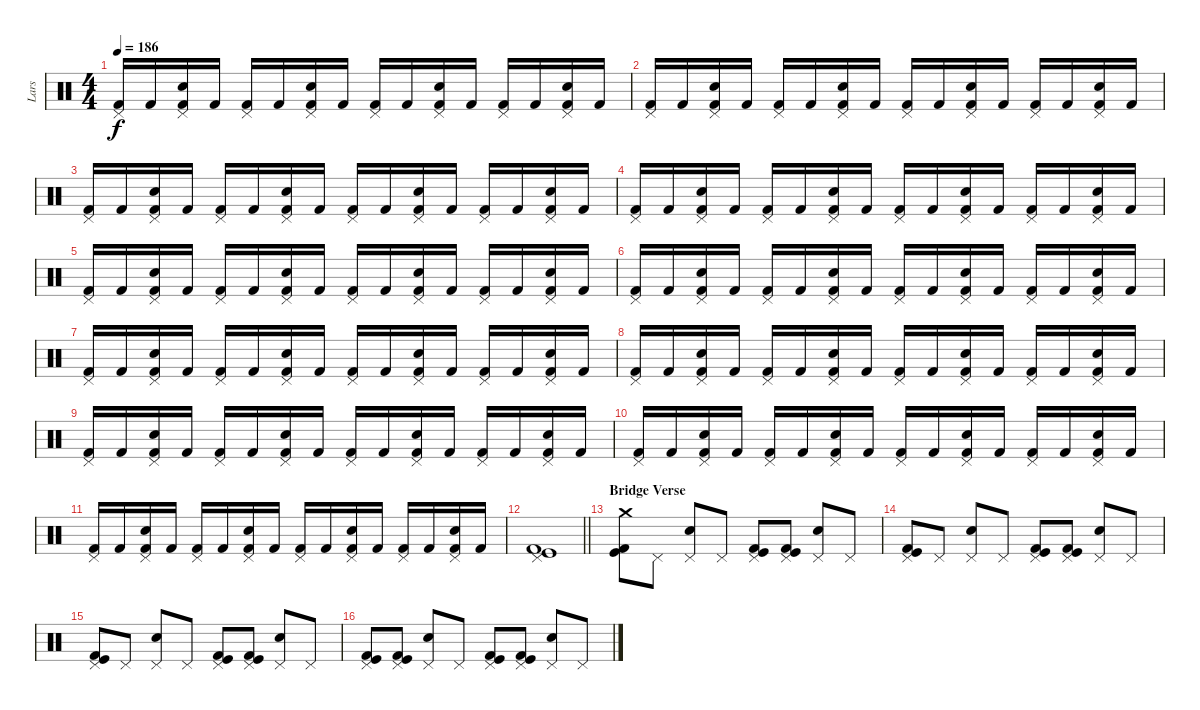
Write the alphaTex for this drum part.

\track ("Lars" "Lars") {instrument percussion}
\staff {score}
\articulation defaults
\ts (4 4)
\tempo 186
\clef neutral
\ks c
("Pedal Hi-Hat (hit)" "Kick (hit) 2").16{dy f} "Kick (hit) 2".16 ("Pedal Hi-Hat (hit)" "Electric Snare (hit)" "Kick (hit) 2").16 "Kick (hit) 2".16 ("Pedal Hi-Hat (hit)" "Kick (hit) 2").16 "Kick (hit) 2".16 ("Pedal Hi-Hat (hit)" "Electric Snare (hit)" "Kick (hit) 2").16 "Kick (hit) 2".16 ("Pedal Hi-Hat (hit)" "Kick (hit) 2").16 "Kick (hit) 2".16 ("Pedal Hi-Hat (hit)" "Electric Snare (hit)" "Kick (hit) 2").16 "Kick (hit) 2".16 ("Pedal Hi-Hat (hit)" "Kick (hit) 2").16 "Kick (hit) 2".16 ("Pedal Hi-Hat (hit)" "Electric Snare (hit)" "Kick (hit) 2").16 "Kick (hit) 2".16 |
("Pedal Hi-Hat (hit)" "Kick (hit) 2").16 "Kick (hit) 2".16 ("Pedal Hi-Hat (hit)" "Electric Snare (hit)" "Kick (hit) 2").16 "Kick (hit) 2".16 ("Pedal Hi-Hat (hit)" "Kick (hit) 2").16 "Kick (hit) 2".16 ("Pedal Hi-Hat (hit)" "Electric Snare (hit)" "Kick (hit) 2").16 "Kick (hit) 2".16 ("Pedal Hi-Hat (hit)" "Kick (hit) 2").16 "Kick (hit) 2".16 ("Pedal Hi-Hat (hit)" "Electric Snare (hit)" "Kick (hit) 2").16 "Kick (hit) 2".16 ("Pedal Hi-Hat (hit)" "Kick (hit) 2").16 "Kick (hit) 2".16 ("Pedal Hi-Hat (hit)" "Electric Snare (hit)" "Kick (hit) 2").16 "Kick (hit) 2".16 |
("Pedal Hi-Hat (hit)" "Kick (hit) 2").16 "Kick (hit) 2".16 ("Pedal Hi-Hat (hit)" "Electric Snare (hit)" "Kick (hit) 2").16 "Kick (hit) 2".16 ("Pedal Hi-Hat (hit)" "Kick (hit) 2").16 "Kick (hit) 2".16 ("Pedal Hi-Hat (hit)" "Electric Snare (hit)" "Kick (hit) 2").16 "Kick (hit) 2".16 ("Pedal Hi-Hat (hit)" "Kick (hit) 2").16 "Kick (hit) 2".16 ("Pedal Hi-Hat (hit)" "Electric Snare (hit)" "Kick (hit) 2").16 "Kick (hit) 2".16 ("Pedal Hi-Hat (hit)" "Kick (hit) 2").16 "Kick (hit) 2".16 ("Pedal Hi-Hat (hit)" "Electric Snare (hit)" "Kick (hit) 2").16 "Kick (hit) 2".16 |
("Pedal Hi-Hat (hit)" "Kick (hit) 2").16 "Kick (hit) 2".16 ("Pedal Hi-Hat (hit)" "Electric Snare (hit)" "Kick (hit) 2").16 "Kick (hit) 2".16 ("Pedal Hi-Hat (hit)" "Kick (hit) 2").16 "Kick (hit) 2".16 ("Pedal Hi-Hat (hit)" "Electric Snare (hit)" "Kick (hit) 2").16 "Kick (hit) 2".16 ("Pedal Hi-Hat (hit)" "Kick (hit) 2").16 "Kick (hit) 2".16 ("Pedal Hi-Hat (hit)" "Electric Snare (hit)" "Kick (hit) 2").16 "Kick (hit) 2".16 ("Pedal Hi-Hat (hit)" "Kick (hit) 2").16 "Kick (hit) 2".16 ("Pedal Hi-Hat (hit)" "Electric Snare (hit)" "Kick (hit) 2").16 "Kick (hit) 2".16 |
("Pedal Hi-Hat (hit)" "Kick (hit) 2").16 "Kick (hit) 2".16 ("Pedal Hi-Hat (hit)" "Electric Snare (hit)" "Kick (hit) 2").16 "Kick (hit) 2".16 ("Pedal Hi-Hat (hit)" "Kick (hit) 2").16 "Kick (hit) 2".16 ("Pedal Hi-Hat (hit)" "Electric Snare (hit)" "Kick (hit) 2").16 "Kick (hit) 2".16 ("Pedal Hi-Hat (hit)" "Kick (hit) 2").16 "Kick (hit) 2".16 ("Pedal Hi-Hat (hit)" "Electric Snare (hit)" "Kick (hit) 2").16 "Kick (hit) 2".16 ("Pedal Hi-Hat (hit)" "Kick (hit) 2").16 "Kick (hit) 2".16 ("Pedal Hi-Hat (hit)" "Electric Snare (hit)" "Kick (hit) 2").16 "Kick (hit) 2".16 |
("Pedal Hi-Hat (hit)" "Kick (hit) 2").16 "Kick (hit) 2".16 ("Pedal Hi-Hat (hit)" "Electric Snare (hit)" "Kick (hit) 2").16 "Kick (hit) 2".16 ("Pedal Hi-Hat (hit)" "Kick (hit) 2").16 "Kick (hit) 2".16 ("Pedal Hi-Hat (hit)" "Electric Snare (hit)" "Kick (hit) 2").16 "Kick (hit) 2".16 ("Pedal Hi-Hat (hit)" "Kick (hit) 2").16 "Kick (hit) 2".16 ("Pedal Hi-Hat (hit)" "Electric Snare (hit)" "Kick (hit) 2").16 "Kick (hit) 2".16 ("Pedal Hi-Hat (hit)" "Kick (hit) 2").16 "Kick (hit) 2".16 ("Pedal Hi-Hat (hit)" "Electric Snare (hit)" "Kick (hit) 2").16 "Kick (hit) 2".16 |
("Pedal Hi-Hat (hit)" "Kick (hit) 2").16 "Kick (hit) 2".16 ("Pedal Hi-Hat (hit)" "Electric Snare (hit)" "Kick (hit) 2").16 "Kick (hit) 2".16 ("Pedal Hi-Hat (hit)" "Kick (hit) 2").16 "Kick (hit) 2".16 ("Pedal Hi-Hat (hit)" "Electric Snare (hit)" "Kick (hit) 2").16 "Kick (hit) 2".16 ("Pedal Hi-Hat (hit)" "Kick (hit) 2").16 "Kick (hit) 2".16 ("Pedal Hi-Hat (hit)" "Electric Snare (hit)" "Kick (hit) 2").16 "Kick (hit) 2".16 ("Pedal Hi-Hat (hit)" "Kick (hit) 2").16 "Kick (hit) 2".16 ("Pedal Hi-Hat (hit)" "Electric Snare (hit)" "Kick (hit) 2").16 "Kick (hit) 2".16 |
("Pedal Hi-Hat (hit)" "Kick (hit) 2").16 "Kick (hit) 2".16 ("Pedal Hi-Hat (hit)" "Electric Snare (hit)" "Kick (hit) 2").16 "Kick (hit) 2".16 ("Pedal Hi-Hat (hit)" "Kick (hit) 2").16 "Kick (hit) 2".16 ("Pedal Hi-Hat (hit)" "Electric Snare (hit)" "Kick (hit) 2").16 "Kick (hit) 2".16 ("Pedal Hi-Hat (hit)" "Kick (hit) 2").16 "Kick (hit) 2".16 ("Pedal Hi-Hat (hit)" "Electric Snare (hit)" "Kick (hit) 2").16 "Kick (hit) 2".16 ("Pedal Hi-Hat (hit)" "Kick (hit) 2").16 "Kick (hit) 2".16 ("Pedal Hi-Hat (hit)" "Electric Snare (hit)" "Kick (hit) 2").16 "Kick (hit) 2".16 |
("Pedal Hi-Hat (hit)" "Kick (hit) 2").16 "Kick (hit) 2".16 ("Pedal Hi-Hat (hit)" "Electric Snare (hit)" "Kick (hit) 2").16 "Kick (hit) 2".16 ("Pedal Hi-Hat (hit)" "Kick (hit) 2").16 "Kick (hit) 2".16 ("Pedal Hi-Hat (hit)" "Electric Snare (hit)" "Kick (hit) 2").16 "Kick (hit) 2".16 ("Pedal Hi-Hat (hit)" "Kick (hit) 2").16 "Kick (hit) 2".16 ("Pedal Hi-Hat (hit)" "Electric Snare (hit)" "Kick (hit) 2").16 "Kick (hit) 2".16 ("Pedal Hi-Hat (hit)" "Kick (hit) 2").16 "Kick (hit) 2".16 ("Pedal Hi-Hat (hit)" "Electric Snare (hit)" "Kick (hit) 2").16 "Kick (hit) 2".16 |
("Pedal Hi-Hat (hit)" "Kick (hit) 2").16 "Kick (hit) 2".16 ("Pedal Hi-Hat (hit)" "Electric Snare (hit)" "Kick (hit) 2").16 "Kick (hit) 2".16 ("Pedal Hi-Hat (hit)" "Kick (hit) 2").16 "Kick (hit) 2".16 ("Pedal Hi-Hat (hit)" "Electric Snare (hit)" "Kick (hit) 2").16 "Kick (hit) 2".16 ("Pedal Hi-Hat (hit)" "Kick (hit) 2").16 "Kick (hit) 2".16 ("Pedal Hi-Hat (hit)" "Electric Snare (hit)" "Kick (hit) 2").16 "Kick (hit) 2".16 ("Pedal Hi-Hat (hit)" "Kick (hit) 2").16 "Kick (hit) 2".16 ("Pedal Hi-Hat (hit)" "Electric Snare (hit)" "Kick (hit) 2").16 "Kick (hit) 2".16 |
("Pedal Hi-Hat (hit)" "Kick (hit) 2").16 "Kick (hit) 2".16 ("Pedal Hi-Hat (hit)" "Electric Snare (hit)" "Kick (hit) 2").16 "Kick (hit) 2".16 ("Pedal Hi-Hat (hit)" "Kick (hit) 2").16 "Kick (hit) 2".16 ("Pedal Hi-Hat (hit)" "Electric Snare (hit)" "Kick (hit) 2").16 "Kick (hit) 2".16 ("Pedal Hi-Hat (hit)" "Kick (hit) 2").16 "Kick (hit) 2".16 ("Pedal Hi-Hat (hit)" "Electric Snare (hit)" "Kick (hit) 2").16 "Kick (hit) 2".16 ("Pedal Hi-Hat (hit)" "Kick (hit) 2").16 "Kick (hit) 2".16 ("Pedal Hi-Hat (hit)" "Electric Snare (hit)" "Kick (hit) 2").16 "Kick (hit) 2".16 |
\barLineRight lightlight
("Pedal Hi-Hat (hit)" "Kick (hit)" "Kick (hit) 2").1 |
\section ("" "Bridge Verse ")
("Crash medium (hit)" "Kick (hit)" "Kick (hit) 2").8 "Pedal Hi-Hat (hit)".8 ("Pedal Hi-Hat (hit)" "Electric Snare (hit)").8 "Pedal Hi-Hat (hit)".8 ("Pedal Hi-Hat (hit)" "Kick (hit)" "Kick (hit) 2").8 ("Pedal Hi-Hat (hit)" "Kick (hit)" "Kick (hit) 2").8 ("Pedal Hi-Hat (hit)" "Electric Snare (hit)").8 "Pedal Hi-Hat (hit)".8 |
("Pedal Hi-Hat (hit)" "Kick (hit)" "Kick (hit) 2").8 "Pedal Hi-Hat (hit)".8 ("Pedal Hi-Hat (hit)" "Electric Snare (hit)").8 "Pedal Hi-Hat (hit)".8 ("Pedal Hi-Hat (hit)" "Kick (hit)" "Kick (hit) 2").8 ("Pedal Hi-Hat (hit)" "Kick (hit)" "Kick (hit) 2").8 ("Pedal Hi-Hat (hit)" "Electric Snare (hit)").8 "Pedal Hi-Hat (hit)".8 |
("Pedal Hi-Hat (hit)" "Kick (hit)" "Kick (hit) 2").8 "Pedal Hi-Hat (hit)".8 ("Pedal Hi-Hat (hit)" "Electric Snare (hit)").8 "Pedal Hi-Hat (hit)".8 ("Pedal Hi-Hat (hit)" "Kick (hit)" "Kick (hit) 2").8 ("Pedal Hi-Hat (hit)" "Kick (hit)" "Kick (hit) 2").8 ("Pedal Hi-Hat (hit)" "Electric Snare (hit)").8 "Pedal Hi-Hat (hit)".8 |
("Pedal Hi-Hat (hit)" "Kick (hit)" "Kick (hit) 2").8 ("Pedal Hi-Hat (hit)" "Kick (hit)" "Kick (hit) 2").8 ("Pedal Hi-Hat (hit)" "Electric Snare (hit)").8 "Pedal Hi-Hat (hit)".8 ("Pedal Hi-Hat (hit)" "Kick (hit)" "Kick (hit) 2").8 ("Pedal Hi-Hat (hit)" "Kick (hit)" "Kick (hit) 2").8 ("Pedal Hi-Hat (hit)" "Electric Snare (hit)").8 "Pedal Hi-Hat (hit)".8
